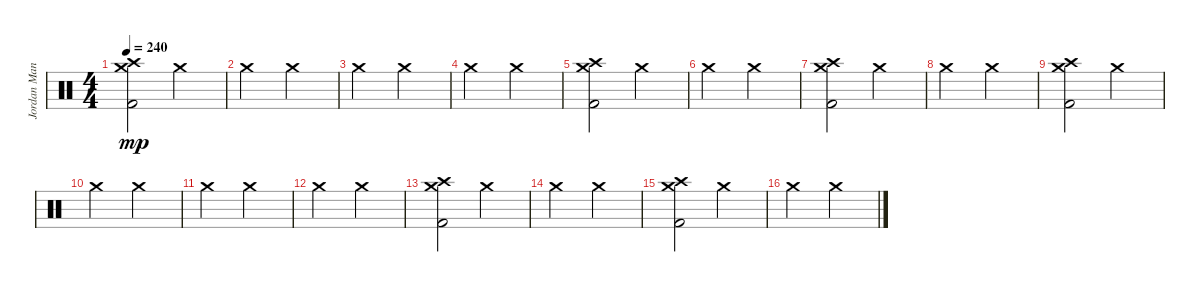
\track ("Jordan Mancino" "Jordan Man") {instrument percussion}
\staff {score}
\articulation defaults
\ts (4 4)
\tempo 240
\clef neutral
\ks c
("Crash high (hit)" "Crash medium (hit)" "Kick (hit) 2").2{dy mp} "Crash medium (hit)".2 |
"Crash medium (hit)".2 "Crash medium (hit)".2 |
"Crash medium (hit)".2 "Crash medium (hit)".2 |
"Crash medium (hit)".2 "Crash medium (hit)".2 |
("Crash high (hit)" "Crash medium (hit)" "Kick (hit) 2").2 "Crash medium (hit)".2 |
"Crash medium (hit)".2 "Crash medium (hit)".2 |
("Crash high (hit)" "Crash medium (hit)" "Kick (hit) 2").2 "Crash medium (hit)".2 |
"Crash medium (hit)".2 "Crash medium (hit)".2 |
("Crash high (hit)" "Crash medium (hit)" "Kick (hit) 2").2 "Crash medium (hit)".2 |
"Crash medium (hit)".2 "Crash medium (hit)".2 |
"Crash medium (hit)".2 "Crash medium (hit)".2 |
"Crash medium (hit)".2 "Crash medium (hit)".2 |
("Crash high (hit)" "Crash medium (hit)" "Kick (hit) 2").2 "Crash medium (hit)".2 |
"Crash medium (hit)".2 "Crash medium (hit)".2 |
("Crash high (hit)" "Crash medium (hit)" "Kick (hit) 2").2 "Crash medium (hit)".2 |
"Crash medium (hit)".2 "Crash medium (hit)".2
